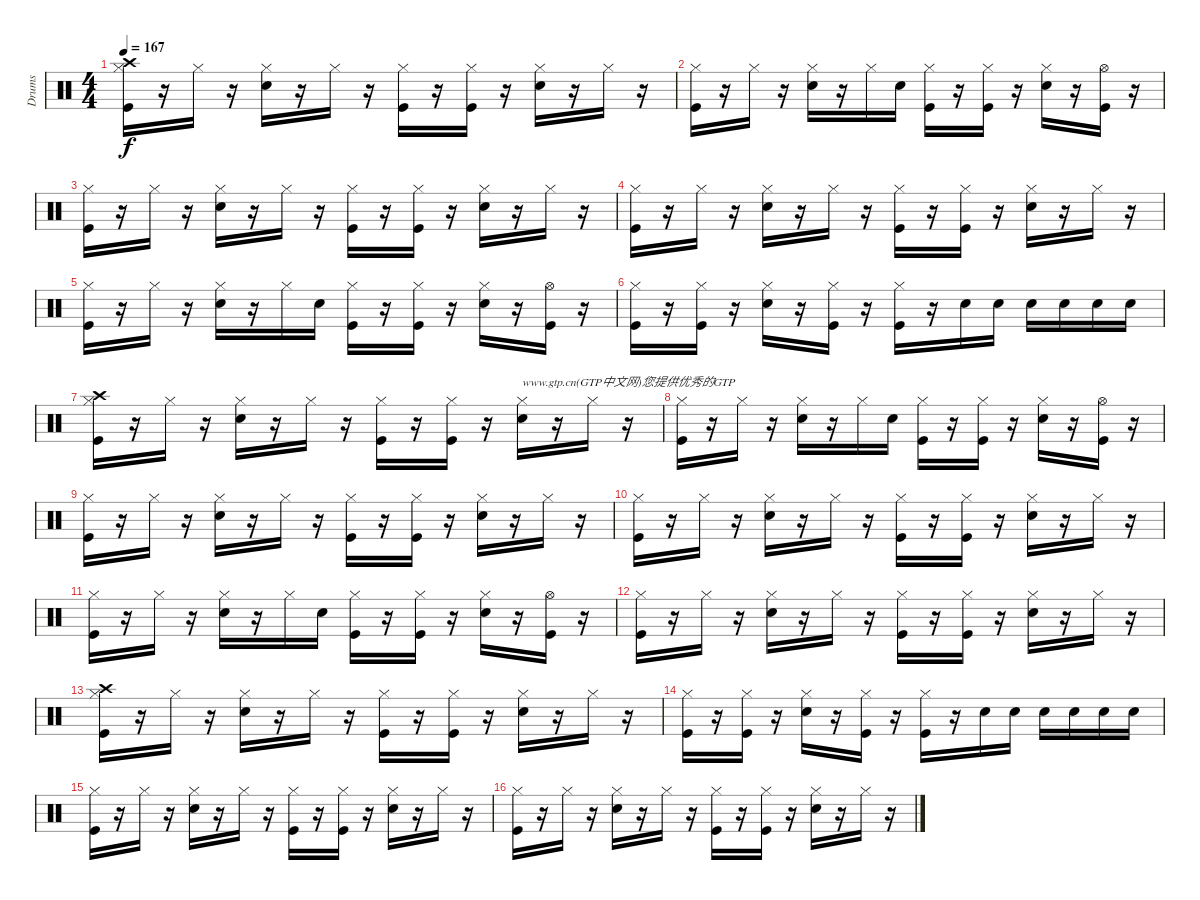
\track ("Drums" "Drums") {instrument percussion}
\staff {score}
\articulation defaults
\ts (4 4)
\tempo 167
\clef neutral
\ks c
("Kick (hit)" "Hi-Hat (closed)" "Crash high (hit)").16{dy f} r.16 "Hi-Hat (closed)".16 r.16 ("Snare (hit) 2" "Hi-Hat (closed)").16 r.16 "Hi-Hat (closed)".16 r.16 ("Kick (hit)" "Hi-Hat (closed)").16 r.16 ("Kick (hit)" "Hi-Hat (closed)").16 r.16 ("Snare (hit) 2" "Hi-Hat (closed)").16 r.16 "Hi-Hat (closed)".16 r.16 |
("Kick (hit)" "Hi-Hat (closed)").16 r.16 "Hi-Hat (closed)".16 r.16 ("Snare (hit) 2" "Hi-Hat (closed)").16 r.16 "Hi-Hat (closed)".16 "Snare (hit) 2".16 ("Kick (hit)" "Hi-Hat (closed)").16 r.16 ("Kick (hit)" "Hi-Hat (closed)").16 r.16 ("Snare (hit) 2" "Hi-Hat (closed)").16 r.16 ("Kick (hit)" "Hi-Hat (open)").16 r.16 |
("Kick (hit)" "Hi-Hat (closed)").16 r.16 "Hi-Hat (closed)".16 r.16 ("Snare (hit) 2" "Hi-Hat (closed)").16 r.16 "Hi-Hat (closed)".16 r.16 ("Kick (hit)" "Hi-Hat (closed)").16 r.16 ("Kick (hit)" "Hi-Hat (closed)").16 r.16 ("Snare (hit) 2" "Hi-Hat (closed)").16 r.16 "Hi-Hat (closed)".16 r.16 |
("Kick (hit)" "Hi-Hat (closed)").16 r.16 "Hi-Hat (closed)".16 r.16 ("Snare (hit) 2" "Hi-Hat (closed)").16 r.16 "Hi-Hat (closed)".16 r.16 ("Kick (hit)" "Hi-Hat (closed)").16 r.16 ("Kick (hit)" "Hi-Hat (closed)").16 r.16 ("Snare (hit) 2" "Hi-Hat (closed)").16 r.16 "Hi-Hat (closed)".16 r.16 |
("Kick (hit)" "Hi-Hat (closed)").16 r.16 "Hi-Hat (closed)".16 r.16 ("Snare (hit) 2" "Hi-Hat (closed)").16 r.16 "Hi-Hat (closed)".16 "Snare (hit) 2".16 ("Kick (hit)" "Hi-Hat (closed)").16 r.16 ("Kick (hit)" "Hi-Hat (closed)").16 r.16 ("Snare (hit) 2" "Hi-Hat (closed)").16 r.16 ("Kick (hit)" "Hi-Hat (open)").16 r.16 |
("Kick (hit)" "Hi-Hat (closed)").16 r.16 ("Kick (hit)" "Hi-Hat (closed)").16 r.16 ("Snare (hit) 2" "Hi-Hat (closed)").16 r.16 ("Kick (hit)" "Hi-Hat (closed)").16 r.16 ("Kick (hit)" "Hi-Hat (closed)").16 r.16 "Snare (hit) 2".16 "Snare (hit) 2".16 "Snare (hit) 2".16 "Snare (hit) 2".16 "Snare (hit) 2".16 "Snare (hit) 2".16 |
("Kick (hit)" "Hi-Hat (closed)" "Crash high (hit)").16 r.16 "Hi-Hat (closed)".16 r.16 ("Snare (hit) 2" "Hi-Hat (closed)").16 r.16 "Hi-Hat (closed)".16 r.16 ("Kick (hit)" "Hi-Hat (closed)").16 r.16 ("Kick (hit)" "Hi-Hat (closed)").16 r.16 ("Snare (hit) 2" "Hi-Hat (closed)").16{txt "www.gtp.cn(GTP中文网)您提供优秀的GTP"} r.16 "Hi-Hat (closed)".16 r.16 |
("Kick (hit)" "Hi-Hat (closed)").16 r.16 "Hi-Hat (closed)".16 r.16 ("Snare (hit) 2" "Hi-Hat (closed)").16 r.16 "Hi-Hat (closed)".16 "Snare (hit) 2".16 ("Kick (hit)" "Hi-Hat (closed)").16 r.16 ("Kick (hit)" "Hi-Hat (closed)").16 r.16 ("Snare (hit) 2" "Hi-Hat (closed)").16 r.16 ("Kick (hit)" "Hi-Hat (open)").16 r.16 |
("Kick (hit)" "Hi-Hat (closed)").16 r.16 "Hi-Hat (closed)".16 r.16 ("Snare (hit) 2" "Hi-Hat (closed)").16 r.16 "Hi-Hat (closed)".16 r.16 ("Kick (hit)" "Hi-Hat (closed)").16 r.16 ("Kick (hit)" "Hi-Hat (closed)").16 r.16 ("Snare (hit) 2" "Hi-Hat (closed)").16 r.16 "Hi-Hat (closed)".16 r.16 |
("Kick (hit)" "Hi-Hat (closed)").16 r.16 "Hi-Hat (closed)".16 r.16 ("Snare (hit) 2" "Hi-Hat (closed)").16 r.16 "Hi-Hat (closed)".16 r.16 ("Kick (hit)" "Hi-Hat (closed)").16 r.16 ("Kick (hit)" "Hi-Hat (closed)").16 r.16 ("Snare (hit) 2" "Hi-Hat (closed)").16 r.16 "Hi-Hat (closed)".16 r.16 |
("Kick (hit)" "Hi-Hat (closed)").16 r.16 "Hi-Hat (closed)".16 r.16 ("Snare (hit) 2" "Hi-Hat (closed)").16 r.16 "Hi-Hat (closed)".16 "Snare (hit) 2".16 ("Kick (hit)" "Hi-Hat (closed)").16 r.16 ("Kick (hit)" "Hi-Hat (closed)").16 r.16 ("Snare (hit) 2" "Hi-Hat (closed)").16 r.16 ("Kick (hit)" "Hi-Hat (open)").16 r.16 |
("Kick (hit)" "Hi-Hat (closed)").16 r.16 "Hi-Hat (closed)".16 r.16 ("Snare (hit) 2" "Hi-Hat (closed)").16 r.16 "Hi-Hat (closed)".16 r.16 ("Kick (hit)" "Hi-Hat (closed)").16 r.16 ("Kick (hit)" "Hi-Hat (closed)").16 r.16 ("Snare (hit) 2" "Hi-Hat (closed)").16 r.16 "Hi-Hat (closed)".16 r.16 |
("Kick (hit)" "Hi-Hat (closed)" "Crash high (hit)").16 r.16 "Hi-Hat (closed)".16 r.16 ("Snare (hit) 2" "Hi-Hat (closed)").16 r.16 "Hi-Hat (closed)".16 r.16 ("Kick (hit)" "Hi-Hat (closed)").16 r.16 ("Kick (hit)" "Hi-Hat (closed)").16 r.16 ("Snare (hit) 2" "Hi-Hat (closed)").16 r.16 "Hi-Hat (closed)".16 r.16 |
("Kick (hit)" "Hi-Hat (closed)").16 r.16 ("Kick (hit)" "Hi-Hat (closed)").16 r.16 ("Snare (hit) 2" "Hi-Hat (closed)").16 r.16 ("Kick (hit)" "Hi-Hat (closed)").16 r.16 ("Kick (hit)" "Hi-Hat (closed)").16 r.16 "Snare (hit) 2".16 "Snare (hit) 2".16 "Snare (hit) 2".16 "Snare (hit) 2".16 "Snare (hit) 2".16 "Snare (hit) 2".16 |
("Kick (hit)" "Hi-Hat (closed)").16 r.16 "Hi-Hat (closed)".16 r.16 ("Snare (hit) 2" "Hi-Hat (closed)").16 r.16 "Hi-Hat (closed)".16 r.16 ("Kick (hit)" "Hi-Hat (closed)").16 r.16 ("Kick (hit)" "Hi-Hat (closed)").16 r.16 ("Snare (hit) 2" "Hi-Hat (closed)").16 r.16 "Hi-Hat (closed)".16 r.16 |
("Kick (hit)" "Hi-Hat (closed)").16 r.16 "Hi-Hat (closed)".16 r.16 ("Snare (hit) 2" "Hi-Hat (closed)").16 r.16 "Hi-Hat (closed)".16 r.16 ("Kick (hit)" "Hi-Hat (closed)").16 r.16 ("Kick (hit)" "Hi-Hat (closed)").16 r.16 ("Snare (hit) 2" "Hi-Hat (closed)").16 r.16 "Hi-Hat (closed)".16 r.16
